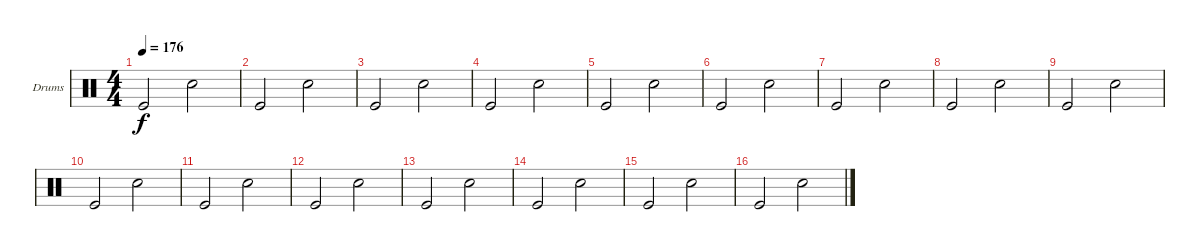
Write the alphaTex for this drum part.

\bracketExtendMode groupsimilarinstruments
\firstSystemTrackNameOrientation horizontal
\otherSystemsTrackNameOrientation horizontal
\track ("Drumkit" "Drums") {instrument percussion}
\staff {score}
\articulation defaults
\ts (4 4)
\tempo 176
\clef neutral
\ks c "Kick (hit)".2{dy f} "Snare (hit) 2".2
|
"Kick (hit)".2 "Snare (hit) 2".2 |
"Kick (hit)".2 "Snare (hit) 2".2 |
"Kick (hit)".2 "Snare (hit) 2".2 |
"Kick (hit)".2 "Snare (hit) 2".2 |
"Kick (hit)".2 "Snare (hit) 2".2 |
"Kick (hit)".2 "Snare (hit) 2".2 |
"Kick (hit)".2 "Snare (hit) 2".2 |
"Kick (hit)".2 "Snare (hit) 2".2 |
"Kick (hit)".2 "Snare (hit) 2".2 |
"Kick (hit)".2 "Snare (hit) 2".2 |
"Kick (hit)".2 "Snare (hit) 2".2 |
"Kick (hit)".2 "Snare (hit) 2".2 |
"Kick (hit)".2 "Snare (hit) 2".2 |
"Kick (hit)".2 "Snare (hit) 2".2 |
"Kick (hit)".2 "Snare (hit) 2".2
